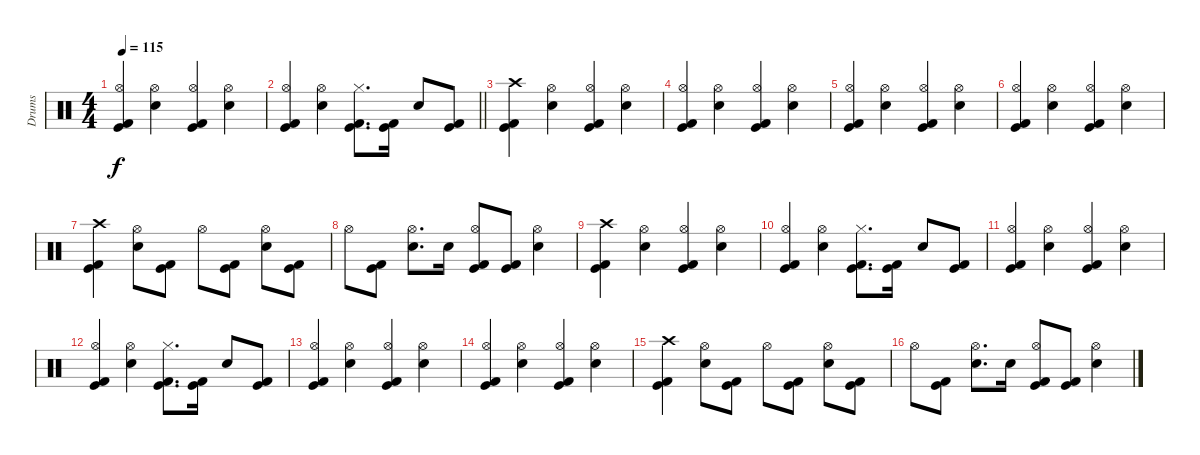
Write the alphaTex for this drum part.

\track ("Drums" "Drums") {instrument percussion}
\staff {score}
\articulation defaults
\ts (4 4)
\tempo 115
\clef neutral
\ks c
("Kick (hit) 2" "Hi-Hat (open)" "Kick (hit)").4{dy f} ("Electric Snare (hit)" "Hi-Hat (open)").4 ("Kick (hit) 2" "Hi-Hat (open)" "Kick (hit)").4 ("Electric Snare (hit)" "Hi-Hat (open)").4 |
\barLineRight lightlight
("Kick (hit) 2" "Hi-Hat (open)" "Kick (hit)").4 ("Electric Snare (hit)" "Hi-Hat (open)").4 ("Kick (hit) 2" "Hi-Hat (closed)" "Kick (hit)").8{d} ("Kick (hit) 2" "Kick (hit)").16 "Electric Snare (hit)".8 ("Kick (hit) 2" "Kick (hit)").8 |
\section ("" "")
("Kick (hit) 2" "Crash high (hit)" "Kick (hit)").4 ("Electric Snare (hit)" "Hi-Hat (open)").4 ("Kick (hit) 2" "Hi-Hat (open)" "Kick (hit)").4 ("Electric Snare (hit)" "Hi-Hat (open)").4 |
("Kick (hit) 2" "Hi-Hat (open)" "Kick (hit)").4 ("Electric Snare (hit)" "Hi-Hat (open)").4 ("Kick (hit) 2" "Hi-Hat (open)" "Kick (hit)").4 ("Electric Snare (hit)" "Hi-Hat (open)").4 |
("Kick (hit) 2" "Hi-Hat (open)" "Kick (hit)").4 ("Electric Snare (hit)" "Hi-Hat (open)").4 ("Kick (hit) 2" "Hi-Hat (open)" "Kick (hit)").4 ("Electric Snare (hit)" "Hi-Hat (open)").4 |
("Kick (hit) 2" "Hi-Hat (open)" "Kick (hit)").4 ("Electric Snare (hit)" "Hi-Hat (open)").4 ("Kick (hit) 2" "Hi-Hat (open)" "Kick (hit)").4 ("Electric Snare (hit)" "Hi-Hat (open)").4 |
("Kick (hit) 2" "Crash high (hit)" "Kick (hit)").4 ("Electric Snare (hit)" "Hi-Hat (open)").8 ("Kick (hit) 2" "Kick (hit)").8 "Hi-Hat (open)".8 ("Kick (hit) 2" "Kick (hit)").8 ("Electric Snare (hit)" "Hi-Hat (open)").8 ("Kick (hit) 2" "Kick (hit)").8 |
"Hi-Hat (open)".8 ("Kick (hit) 2" "Kick (hit)").8 ("Electric Snare (hit)" "Hi-Hat (open)").8{d} "Electric Snare (hit)".16 ("Kick (hit) 2" "Hi-Hat (open)" "Kick (hit)").8 ("Kick (hit) 2" "Kick (hit)").8 ("Electric Snare (hit)" "Hi-Hat (open)").4 |
("Kick (hit) 2" "Crash high (hit)" "Kick (hit)").4 ("Electric Snare (hit)" "Hi-Hat (open)").4 ("Kick (hit) 2" "Hi-Hat (open)" "Kick (hit)").4 ("Electric Snare (hit)" "Hi-Hat (open)").4 |
("Kick (hit) 2" "Hi-Hat (open)" "Kick (hit)").4 ("Electric Snare (hit)" "Hi-Hat (open)").4 ("Kick (hit) 2" "Hi-Hat (closed)" "Kick (hit)").8{d} ("Kick (hit) 2" "Kick (hit)").16 "Electric Snare (hit)".8 ("Kick (hit) 2" "Kick (hit)").8 |
("Kick (hit) 2" "Hi-Hat (open)" "Kick (hit)").4 ("Electric Snare (hit)" "Hi-Hat (open)").4 ("Kick (hit) 2" "Hi-Hat (open)" "Kick (hit)").4 ("Electric Snare (hit)" "Hi-Hat (open)").4 |
("Kick (hit) 2" "Hi-Hat (open)" "Kick (hit)").4 ("Electric Snare (hit)" "Hi-Hat (open)").4 ("Kick (hit) 2" "Hi-Hat (closed)" "Kick (hit)").8{d} ("Kick (hit) 2" "Kick (hit)").16 "Electric Snare (hit)".8 ("Kick (hit) 2" "Kick (hit)").8 |
("Kick (hit) 2" "Hi-Hat (open)" "Kick (hit)").4 ("Electric Snare (hit)" "Hi-Hat (open)").4 ("Kick (hit) 2" "Hi-Hat (open)" "Kick (hit)").4 ("Electric Snare (hit)" "Hi-Hat (open)").4 |
("Kick (hit) 2" "Hi-Hat (open)" "Kick (hit)").4 ("Electric Snare (hit)" "Hi-Hat (open)").4 ("Kick (hit) 2" "Hi-Hat (open)" "Kick (hit)").4 ("Electric Snare (hit)" "Hi-Hat (open)").4 |
("Kick (hit) 2" "Crash high (hit)" "Kick (hit)").4 ("Electric Snare (hit)" "Hi-Hat (open)").8 ("Kick (hit) 2" "Kick (hit)").8 "Hi-Hat (open)".8 ("Kick (hit) 2" "Kick (hit)").8 ("Electric Snare (hit)" "Hi-Hat (open)").8 ("Kick (hit) 2" "Kick (hit)").8 |
"Hi-Hat (open)".8 ("Kick (hit) 2" "Kick (hit)").8 ("Electric Snare (hit)" "Hi-Hat (open)").8{d} "Electric Snare (hit)".16 ("Kick (hit) 2" "Hi-Hat (open)" "Kick (hit)").8 ("Kick (hit) 2" "Kick (hit)").8 ("Electric Snare (hit)" "Hi-Hat (open)").4
